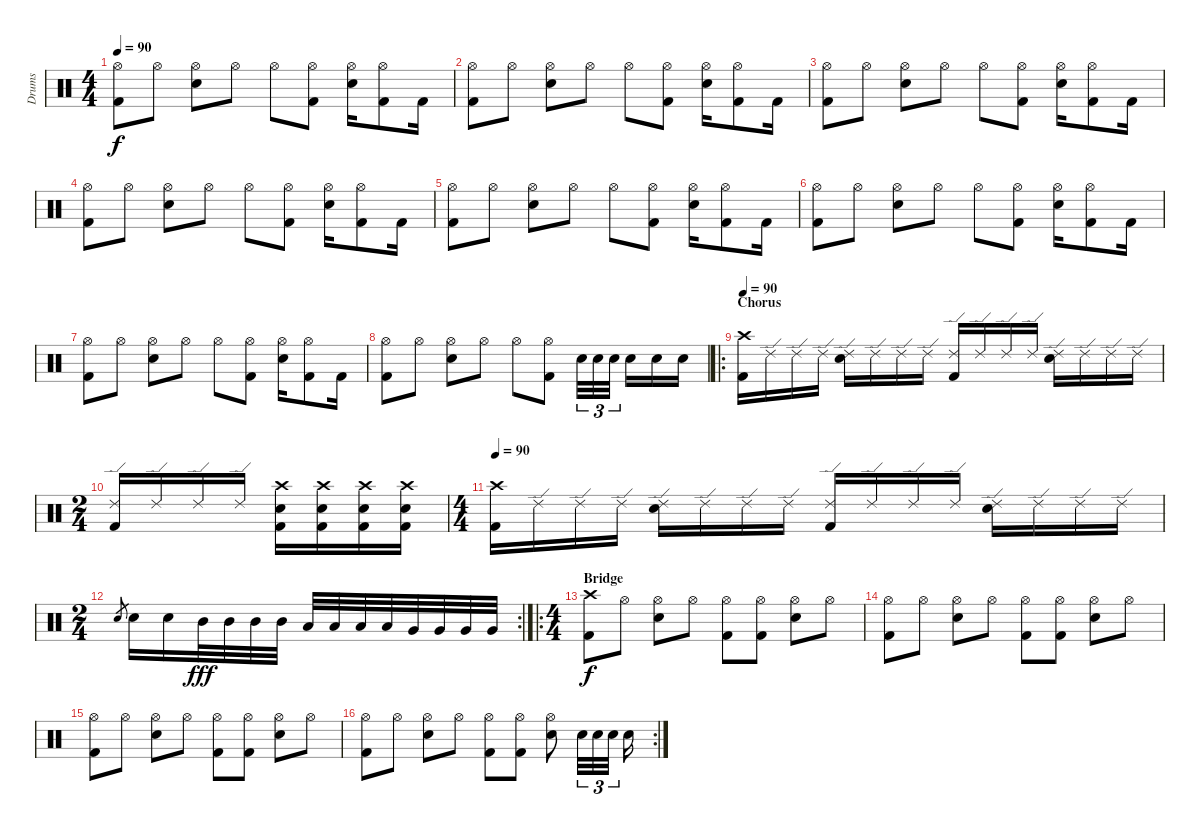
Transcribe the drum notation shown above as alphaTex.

\track ("Drums" "Drums") {instrument percussion}
\staff {score}
\articulation defaults
\ts (4 4)
\tempo 90
\clef neutral
\ks c
("Hi-Hat (open)" "Kick (hit) 2").8{dy f} "Hi-Hat (open)".8 ("Hi-Hat (open)" "Electric Snare (hit)").8 "Hi-Hat (open)".8 "Hi-Hat (open)".8 ("Hi-Hat (open)" "Kick (hit) 2").8 ("Hi-Hat (open)" "Electric Snare (hit)").16 ("Hi-Hat (open)" "Kick (hit) 2").8 "Kick (hit) 2".16 |
("Hi-Hat (open)" "Kick (hit) 2").8 "Hi-Hat (open)".8 ("Hi-Hat (open)" "Electric Snare (hit)").8 "Hi-Hat (open)".8 "Hi-Hat (open)".8 ("Hi-Hat (open)" "Kick (hit) 2").8 ("Hi-Hat (open)" "Electric Snare (hit)").16 ("Hi-Hat (open)" "Kick (hit) 2").8 "Kick (hit) 2".16 |
("Hi-Hat (open)" "Kick (hit) 2").8 "Hi-Hat (open)".8 ("Hi-Hat (open)" "Electric Snare (hit)").8 "Hi-Hat (open)".8 "Hi-Hat (open)".8 ("Hi-Hat (open)" "Kick (hit) 2").8 ("Hi-Hat (open)" "Electric Snare (hit)").16 ("Hi-Hat (open)" "Kick (hit) 2").8 "Kick (hit) 2".16 |
("Hi-Hat (open)" "Kick (hit) 2").8 "Hi-Hat (open)".8 ("Hi-Hat (open)" "Electric Snare (hit)").8 "Hi-Hat (open)".8 "Hi-Hat (open)".8 ("Hi-Hat (open)" "Kick (hit) 2").8 ("Hi-Hat (open)" "Electric Snare (hit)").16 ("Hi-Hat (open)" "Kick (hit) 2").8 "Kick (hit) 2".16 |
("Hi-Hat (open)" "Kick (hit) 2").8 "Hi-Hat (open)".8 ("Hi-Hat (open)" "Electric Snare (hit)").8 "Hi-Hat (open)".8 "Hi-Hat (open)".8 ("Hi-Hat (open)" "Kick (hit) 2").8 ("Hi-Hat (open)" "Electric Snare (hit)").16 ("Hi-Hat (open)" "Kick (hit) 2").8 "Kick (hit) 2".16 |
("Hi-Hat (open)" "Kick (hit) 2").8 "Hi-Hat (open)".8 ("Hi-Hat (open)" "Electric Snare (hit)").8 "Hi-Hat (open)".8 "Hi-Hat (open)".8 ("Hi-Hat (open)" "Kick (hit) 2").8 ("Hi-Hat (open)" "Electric Snare (hit)").16 ("Hi-Hat (open)" "Kick (hit) 2").8 "Kick (hit) 2".16 |
("Hi-Hat (open)" "Kick (hit) 2").8 "Hi-Hat (open)".8 ("Hi-Hat (open)" "Electric Snare (hit)").8 "Hi-Hat (open)".8 "Hi-Hat (open)".8 ("Hi-Hat (open)" "Kick (hit) 2").8 ("Hi-Hat (open)" "Electric Snare (hit)").16 ("Hi-Hat (open)" "Kick (hit) 2").8 "Kick (hit) 2".16 |
("Hi-Hat (open)" "Kick (hit) 2").8 "Hi-Hat (open)".8 ("Hi-Hat (open)" "Electric Snare (hit)").8 "Hi-Hat (open)".8 "Hi-Hat (open)".8 ("Hi-Hat (open)" "Kick (hit) 2").8 "Electric Snare (hit)".32{tu (3 2)} "Electric Snare (hit)".32{tu (3 2)} "Electric Snare (hit)".32{tu (3 2)} "Electric Snare (hit)".16 "Electric Snare (hit)".16 "Electric Snare (hit)".16 |
\ro
\section ("" "Chorus")
\tempo 90
("Crash high (hit)" "Kick (hit) 2").16 "Ride (edge) 2".16 "Ride (edge) 2".16 "Ride (edge) 2".16 ("Ride (edge) 2" "Electric Snare (hit)").16 "Ride (edge) 2".16 "Ride (edge) 2".16 "Ride (edge) 2".16 ("Ride (edge) 2" "Kick (hit) 2").16 "Ride (edge) 2".16 "Ride (edge) 2".16 "Ride (edge) 2".16 ("Ride (edge) 2" "Electric Snare (hit)").16 "Ride (edge) 2".16 "Ride (edge) 2".16 "Ride (edge) 2".16 |
\ts (2 4)
("Ride (edge) 2" "Kick (hit) 2").16 "Ride (edge) 2".16 "Ride (edge) 2".16 "Ride (edge) 2".16 ("Crash high (hit)" "Electric Snare (hit)" "Kick (hit) 2").16 ("Crash high (hit)" "Electric Snare (hit)" "Kick (hit) 2").16 ("Crash high (hit)" "Electric Snare (hit)" "Kick (hit) 2").16 ("Crash high (hit)" "Electric Snare (hit)" "Kick (hit) 2").16 |
\ts (4 4)
\tempo 90
("Crash high (hit)" "Kick (hit) 2").16 "Ride (edge) 2".16 "Ride (edge) 2".16 "Ride (edge) 2".16 ("Ride (edge) 2" "Electric Snare (hit)").16 "Ride (edge) 2".16 "Ride (edge) 2".16 "Ride (edge) 2".16 ("Ride (edge) 2" "Kick (hit) 2").16 "Ride (edge) 2".16 "Ride (edge) 2".16 "Ride (edge) 2".16 ("Ride (edge) 2" "Electric Snare (hit)").16 "Ride (edge) 2".16 "Ride (edge) 2".16 "Ride (edge) 2".16 |
\rc 2
\ts (2 4)
"Electric Snare (hit)".8{gr} "Electric Snare (hit)".16 "Electric Snare (hit)".16 "Mid Tom (hit)".32{dy fff} "Mid Tom (hit)".32 "Mid Tom (hit)".32 "Mid Tom (hit)".32 "Low Tom (hit)".32 "Low Tom (hit)".32 "Low Tom (hit)".32 "Low Tom (hit)".32 "Very Low Tom (hit)".32 "Very Low Tom (hit)".32 "Very Low Tom (hit)".32 "Very Low Tom (hit)".32 |
\ro
\ts (4 4)
\section ("" "Bridge")
("Crash high (hit)" "Kick (hit) 2").8{dy f} "Hi-Hat (open)".8 ("Hi-Hat (open)" "Electric Snare (hit)").8 "Hi-Hat (open)".8 ("Hi-Hat (open)" "Kick (hit) 2").8 ("Hi-Hat (open)" "Kick (hit) 2").8 ("Hi-Hat (open)" "Electric Snare (hit)").8 "Hi-Hat (open)".8 |
("Hi-Hat (open)" "Kick (hit) 2").8 "Hi-Hat (open)".8 ("Hi-Hat (open)" "Electric Snare (hit)").8 "Hi-Hat (open)".8 ("Hi-Hat (open)" "Kick (hit) 2").8 ("Hi-Hat (open)" "Kick (hit) 2").8 ("Hi-Hat (open)" "Electric Snare (hit)").8 "Hi-Hat (open)".8 |
("Hi-Hat (open)" "Kick (hit) 2").8 "Hi-Hat (open)".8 ("Hi-Hat (open)" "Electric Snare (hit)").8 "Hi-Hat (open)".8 ("Hi-Hat (open)" "Kick (hit) 2").8 ("Hi-Hat (open)" "Kick (hit) 2").8 ("Hi-Hat (open)" "Electric Snare (hit)").8 "Hi-Hat (open)".8 |
\rc 2
("Hi-Hat (open)" "Kick (hit) 2").8 "Hi-Hat (open)".8 ("Hi-Hat (open)" "Electric Snare (hit)").8 "Hi-Hat (open)".8 ("Hi-Hat (open)" "Kick (hit) 2").8 ("Hi-Hat (open)" "Kick (hit) 2").8 ("Hi-Hat (open)" "Electric Snare (hit)").8 "Electric Snare (hit)".32{tu (3 2)} "Electric Snare (hit)".32{tu (3 2)} "Electric Snare (hit)".32{tu (3 2)} "Electric Snare (hit)".16
